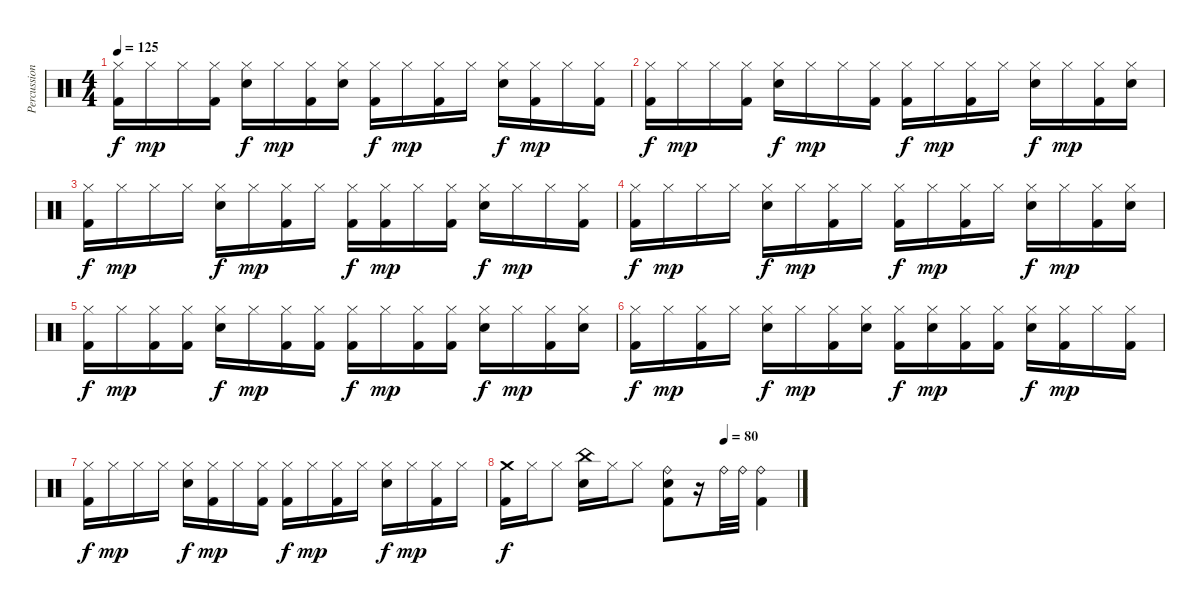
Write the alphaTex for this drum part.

\track ("Percussion" "Percussion") {instrument percussion}
\staff {score}
\articulation defaults
\ts (4 4)
\tempo 125
\clef neutral
\ks c
("Hi-Hat (closed)" "Kick (hit) 2").16{dy f} "Hi-Hat (closed)".16{dy mp} "Hi-Hat (closed)".16 ("Hi-Hat (closed)" "Kick (hit) 2").16 ("Hi-Hat (closed)" "Snare (hit) 2").16{dy f} "Hi-Hat (closed)".16{dy mp} ("Hi-Hat (closed)" "Kick (hit) 2").16 ("Hi-Hat (closed)" "Snare (hit) 2").16 ("Hi-Hat (closed)" "Kick (hit) 2").16{dy f} "Hi-Hat (closed)".16{dy mp} ("Hi-Hat (closed)" "Kick (hit) 2").16 "Hi-Hat (closed)".16 ("Hi-Hat (closed)" "Snare (hit) 2").16{dy f} ("Hi-Hat (closed)" "Kick (hit) 2").16{dy mp} "Hi-Hat (closed)".16 ("Hi-Hat (closed)" "Kick (hit) 2").16 |
("Hi-Hat (closed)" "Kick (hit) 2").16{dy f} "Hi-Hat (closed)".16{dy mp} "Hi-Hat (closed)".16 ("Hi-Hat (closed)" "Kick (hit) 2").16 ("Hi-Hat (closed)" "Snare (hit) 2").16{dy f} "Hi-Hat (closed)".16{dy mp} "Hi-Hat (closed)".16 ("Hi-Hat (closed)" "Kick (hit) 2").16 ("Hi-Hat (closed)" "Kick (hit) 2").16{dy f} "Hi-Hat (closed)".16{dy mp} ("Hi-Hat (closed)" "Kick (hit) 2").16 "Hi-Hat (closed)".16 ("Hi-Hat (closed)" "Snare (hit) 2").16{dy f} "Hi-Hat (closed)".16{dy mp} ("Hi-Hat (closed)" "Kick (hit) 2").16 ("Hi-Hat (closed)" "Snare (hit) 2").16 |
("Hi-Hat (closed)" "Kick (hit) 2").16{dy f} "Hi-Hat (closed)".16{dy mp} "Hi-Hat (closed)".16 "Hi-Hat (closed)".16 ("Hi-Hat (closed)" "Snare (hit) 2").16{dy f} "Hi-Hat (closed)".16{dy mp} ("Hi-Hat (closed)" "Kick (hit) 2").16 "Hi-Hat (closed)".16 ("Hi-Hat (closed)" "Kick (hit) 2").16{dy f} ("Hi-Hat (closed)" "Kick (hit) 2").16{dy mp} "Hi-Hat (closed)".16 ("Hi-Hat (closed)" "Kick (hit) 2").16 ("Hi-Hat (closed)" "Snare (hit) 2").16{dy f} "Hi-Hat (closed)".16{dy mp} "Hi-Hat (closed)".16 ("Hi-Hat (closed)" "Kick (hit) 2").16 |
("Hi-Hat (closed)" "Kick (hit) 2").16{dy f} "Hi-Hat (closed)".16{dy mp} "Hi-Hat (closed)".16 "Hi-Hat (closed)".16 ("Hi-Hat (closed)" "Snare (hit) 2").16{dy f} "Hi-Hat (closed)".16{dy mp} ("Hi-Hat (closed)" "Kick (hit) 2").16 "Hi-Hat (closed)".16 ("Hi-Hat (closed)" "Kick (hit) 2").16{dy f} "Hi-Hat (closed)".16{dy mp} ("Hi-Hat (closed)" "Kick (hit) 2").16 "Hi-Hat (closed)".16 ("Hi-Hat (closed)" "Snare (hit) 2").16{dy f} "Hi-Hat (closed)".16{dy mp} ("Hi-Hat (closed)" "Kick (hit) 2").16 ("Hi-Hat (closed)" "Snare (hit) 2").16 |
("Hi-Hat (closed)" "Kick (hit) 2").16{dy f} "Hi-Hat (closed)".16{dy mp} ("Hi-Hat (closed)" "Kick (hit) 2").16 ("Hi-Hat (closed)" "Kick (hit) 2").16 ("Hi-Hat (closed)" "Snare (hit) 2").16{dy f} "Hi-Hat (closed)".16{dy mp} ("Hi-Hat (closed)" "Kick (hit) 2").16 ("Hi-Hat (closed)" "Kick (hit) 2").16 ("Hi-Hat (closed)" "Kick (hit) 2").16{dy f} "Hi-Hat (closed)".16{dy mp} ("Hi-Hat (closed)" "Kick (hit) 2").16 ("Hi-Hat (closed)" "Kick (hit) 2").16 ("Hi-Hat (closed)" "Snare (hit) 2").16{dy f} "Hi-Hat (closed)".16{dy mp} ("Hi-Hat (closed)" "Kick (hit) 2").16 ("Hi-Hat (closed)" "Snare (hit) 2").16 |
("Hi-Hat (closed)" "Kick (hit) 2").16{dy f} "Hi-Hat (closed)".16{dy mp} ("Hi-Hat (closed)" "Kick (hit) 2").16 "Hi-Hat (closed)".16 ("Hi-Hat (closed)" "Snare (hit) 2").16{dy f} "Hi-Hat (closed)".16{dy mp} ("Hi-Hat (closed)" "Kick (hit) 2").16 ("Hi-Hat (closed)" "Snare (hit) 2").16 ("Hi-Hat (closed)" "Kick (hit) 2").16{dy f} ("Hi-Hat (closed)" "Snare (hit) 2").16{dy mp} ("Hi-Hat (closed)" "Kick (hit) 2").16 ("Hi-Hat (closed)" "Kick (hit) 2").16 ("Hi-Hat (closed)" "Snare (hit) 2").16{dy f} ("Hi-Hat (closed)" "Kick (hit) 2").16{dy mp} "Hi-Hat (closed)".16 ("Hi-Hat (closed)" "Kick (hit) 2").16 |
("Hi-Hat (closed)" "Kick (hit) 2").16{dy f} "Hi-Hat (closed)".16{dy mp} "Hi-Hat (closed)".16 "Hi-Hat (closed)".16 ("Hi-Hat (closed)" "Snare (hit) 2").16{dy f} ("Hi-Hat (closed)" "Kick (hit) 2").16{dy mp} "Hi-Hat (closed)".16 ("Hi-Hat (closed)" "Kick (hit) 2").16 ("Hi-Hat (closed)" "Kick (hit) 2").16{dy f} "Hi-Hat (closed)".16{dy mp} ("Hi-Hat (closed)" "Kick (hit) 2").16 "Hi-Hat (closed)".16 ("Hi-Hat (closed)" "Snare (hit) 2").16{dy f} "Hi-Hat (closed)".16{dy mp} ("Hi-Hat (closed)" "Kick (hit) 2").16 "Hi-Hat (closed)".16 |
\tempo (80 0.75)
("Crash medium (hit)" "Kick (hit) 2").16{dy f} "Hi-Hat (closed)".16 "Hi-Hat (closed)".8 ("China (hit)" "Snare (hit) 2").16 "Hi-Hat (closed)".16 "Hi-Hat (closed)".8 ("Ride (bell)" "Snare (hit) 2" "Kick (hit) 2").8 r.16 "Ride (bell)".32 "Ride (bell)".32 ("Ride (bell)" "Kick (hit) 2").4
